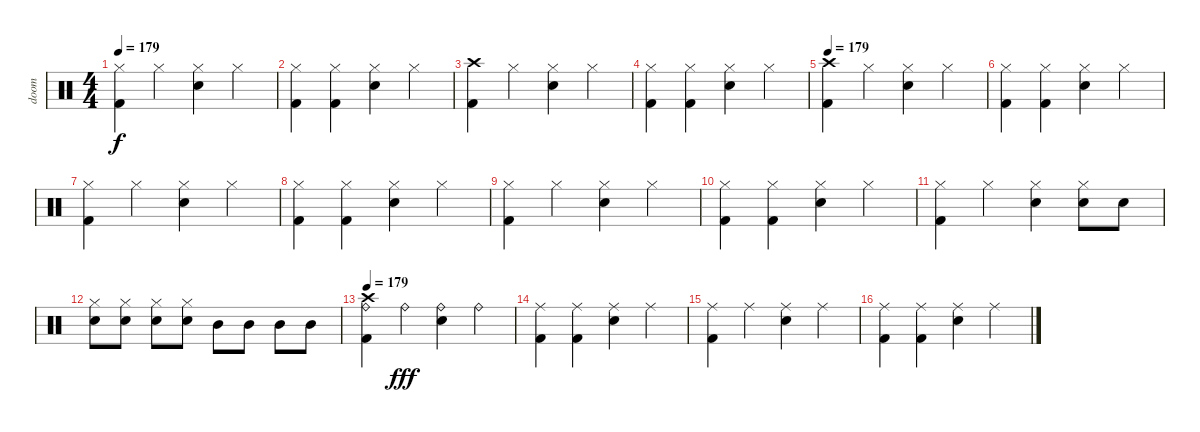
\track ("doom" "doom") {instrument percussion}
\staff {score}
\articulation defaults
\ts (4 4)
\tempo 179
\clef neutral
\ks c
("Hi-Hat (closed)" "Kick (hit) 2").4{dy f} "Hi-Hat (closed)".4 ("Hi-Hat (closed)" "Snare (hit) 2").4 "Hi-Hat (closed)".4 |
("Hi-Hat (closed)" "Kick (hit) 2").4 ("Hi-Hat (closed)" "Kick (hit) 2").4 ("Hi-Hat (closed)" "Snare (hit) 2").4 "Hi-Hat (closed)".4 |
("Crash high (hit)" "Kick (hit) 2").4 "Hi-Hat (closed)".4 ("Hi-Hat (closed)" "Snare (hit) 2").4 "Hi-Hat (closed)".4 |
("Hi-Hat (closed)" "Kick (hit) 2").4 ("Hi-Hat (closed)" "Kick (hit) 2").4 ("Hi-Hat (closed)" "Snare (hit) 2").4 "Hi-Hat (closed)".4 |
\tempo 179
("Crash high (hit)" "Kick (hit) 2").4 "Hi-Hat (closed)".4 ("Hi-Hat (closed)" "Snare (hit) 2").4 "Hi-Hat (closed)".4 |
("Hi-Hat (closed)" "Kick (hit) 2").4 ("Hi-Hat (closed)" "Kick (hit) 2").4 ("Hi-Hat (closed)" "Snare (hit) 2").4 "Hi-Hat (closed)".4 |
("Hi-Hat (closed)" "Kick (hit) 2").4 "Hi-Hat (closed)".4 ("Hi-Hat (closed)" "Snare (hit) 2").4 "Hi-Hat (closed)".4 |
("Hi-Hat (closed)" "Kick (hit) 2").4 ("Hi-Hat (closed)" "Kick (hit) 2").4 ("Hi-Hat (closed)" "Snare (hit) 2").4 "Hi-Hat (closed)".4 |
("Hi-Hat (closed)" "Kick (hit) 2").4 "Hi-Hat (closed)".4 ("Hi-Hat (closed)" "Snare (hit) 2").4 "Hi-Hat (closed)".4 |
("Hi-Hat (closed)" "Kick (hit) 2").4 ("Hi-Hat (closed)" "Kick (hit) 2").4 ("Hi-Hat (closed)" "Snare (hit) 2").4 "Hi-Hat (closed)".4 |
("Hi-Hat (closed)" "Kick (hit) 2").4 "Hi-Hat (closed)".4 ("Hi-Hat (closed)" "Snare (hit) 2").4 ("Hi-Hat (closed)" "Snare (hit) 2").8 "Snare (hit) 2".8 |
("Hi-Hat (closed)" "Snare (hit) 2").8 ("Hi-Hat (closed)" "Snare (hit) 2").8 ("Hi-Hat (closed)" "Snare (hit) 2").8 ("Hi-Hat (closed)" "Snare (hit) 2").8 "Mid Tom (hit)".8 "Mid Tom (hit)".8 "Mid Tom (hit)".8 "Mid Tom (hit)".8 |
\tempo 179
("Ride (bell)" "Crash high (hit)" "Kick (hit) 2").4 "Ride (bell)".4{dy fff} ("Ride (bell)" "Snare (hit) 2").4 "Ride (bell)".4 |
("Ride (middle)" "Kick (hit) 2").4 ("Ride (middle)" "Kick (hit) 2").4 ("Ride (middle)" "Snare (hit) 2").4 "Ride (middle)".4 |
("Ride (middle)" "Kick (hit) 2").4 "Ride (middle)".4 ("Ride (middle)" "Snare (hit) 2").4 "Ride (middle)".4 |
("Ride (middle)" "Kick (hit) 2").4 ("Ride (middle)" "Kick (hit) 2").4 ("Ride (middle)" "Snare (hit) 2").4 "Ride (middle)".4
